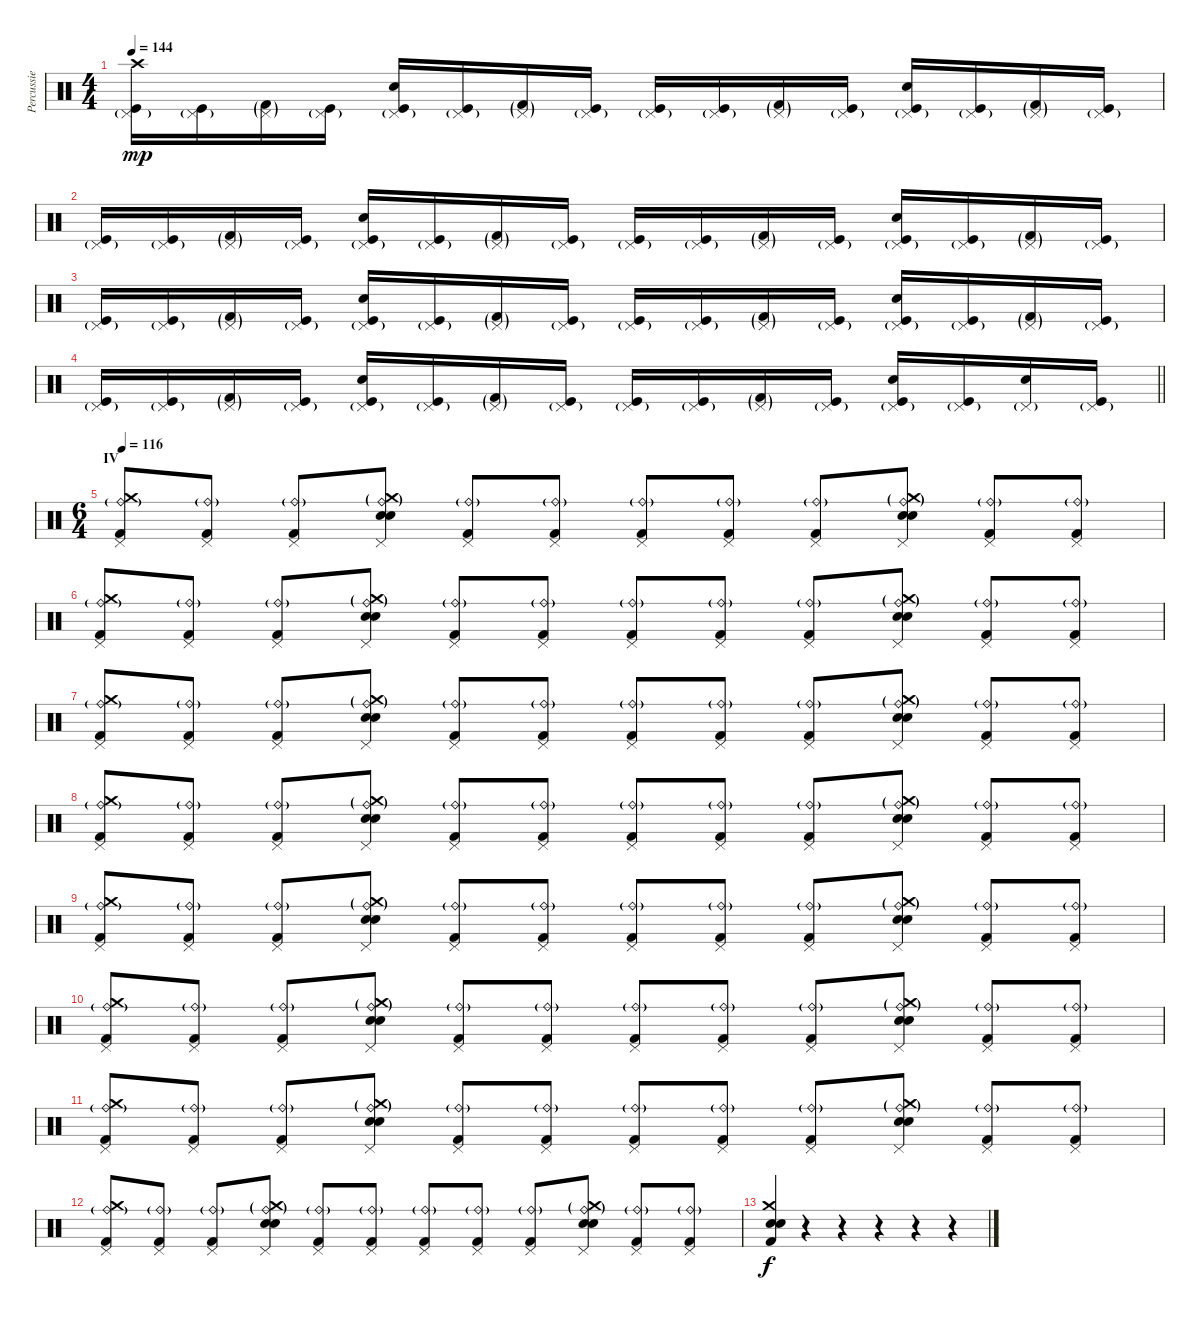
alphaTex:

\track ("Percussie" "Percussie") {instrument percussion}
\staff {score}
\articulation defaults
\ts (4 4)
\tempo 144
\clef neutral
\ks c
("Crash high (hit)" "Kick (hit)" "Pedal Hi-Hat (hit)"{g}).16{dy mp} ("Kick (hit)" "Pedal Hi-Hat (hit)"{g}).16 ("Kick (hit) 2"{g} "Pedal Hi-Hat (hit)"{g}).16 ("Kick (hit)" "Pedal Hi-Hat (hit)"{g}).16 ("Snare (hit) 2" "Kick (hit)" "Pedal Hi-Hat (hit)"{g}).16 ("Kick (hit)" "Pedal Hi-Hat (hit)"{g}).16 ("Kick (hit) 2"{g} "Pedal Hi-Hat (hit)"{g}).16 ("Kick (hit)" "Pedal Hi-Hat (hit)"{g}).16 ("Kick (hit)" "Pedal Hi-Hat (hit)"{g}).16 ("Kick (hit)" "Pedal Hi-Hat (hit)"{g}).16 ("Kick (hit) 2"{g} "Pedal Hi-Hat (hit)"{g}).16 ("Kick (hit)" "Pedal Hi-Hat (hit)"{g}).16 ("Snare (hit) 2" "Kick (hit)" "Pedal Hi-Hat (hit)"{g}).16 ("Kick (hit)" "Pedal Hi-Hat (hit)"{g}).16 ("Kick (hit) 2"{g} "Pedal Hi-Hat (hit)"{g}).16 ("Kick (hit)" "Pedal Hi-Hat (hit)"{g}).16 |
("Kick (hit)" "Pedal Hi-Hat (hit)"{g}).16 ("Kick (hit)" "Pedal Hi-Hat (hit)"{g}).16 ("Kick (hit) 2"{g} "Pedal Hi-Hat (hit)"{g}).16 ("Kick (hit)" "Pedal Hi-Hat (hit)"{g}).16 ("Snare (hit) 2" "Kick (hit)" "Pedal Hi-Hat (hit)"{g}).16 ("Kick (hit)" "Pedal Hi-Hat (hit)"{g}).16 ("Kick (hit) 2"{g} "Pedal Hi-Hat (hit)"{g}).16 ("Kick (hit)" "Pedal Hi-Hat (hit)"{g}).16 ("Kick (hit)" "Pedal Hi-Hat (hit)"{g}).16 ("Kick (hit)" "Pedal Hi-Hat (hit)"{g}).16 ("Kick (hit) 2"{g} "Pedal Hi-Hat (hit)"{g}).16 ("Kick (hit)" "Pedal Hi-Hat (hit)"{g}).16 ("Snare (hit) 2" "Kick (hit)" "Pedal Hi-Hat (hit)"{g}).16 ("Kick (hit)" "Pedal Hi-Hat (hit)"{g}).16 ("Kick (hit) 2"{g} "Pedal Hi-Hat (hit)"{g}).16 ("Kick (hit)" "Pedal Hi-Hat (hit)"{g}).16 |
("Kick (hit)" "Pedal Hi-Hat (hit)"{g}).16 ("Kick (hit)" "Pedal Hi-Hat (hit)"{g}).16 ("Kick (hit) 2"{g} "Pedal Hi-Hat (hit)"{g}).16 ("Kick (hit)" "Pedal Hi-Hat (hit)"{g}).16 ("Snare (hit) 2" "Kick (hit)" "Pedal Hi-Hat (hit)"{g}).16 ("Kick (hit)" "Pedal Hi-Hat (hit)"{g}).16 ("Kick (hit) 2"{g} "Pedal Hi-Hat (hit)"{g}).16 ("Kick (hit)" "Pedal Hi-Hat (hit)"{g}).16 ("Kick (hit)" "Pedal Hi-Hat (hit)"{g}).16 ("Kick (hit)" "Pedal Hi-Hat (hit)"{g}).16 ("Kick (hit) 2"{g} "Pedal Hi-Hat (hit)"{g}).16 ("Kick (hit)" "Pedal Hi-Hat (hit)"{g}).16 ("Snare (hit) 2" "Kick (hit)" "Pedal Hi-Hat (hit)"{g}).16 ("Kick (hit)" "Pedal Hi-Hat (hit)"{g}).16 ("Kick (hit) 2"{g} "Pedal Hi-Hat (hit)"{g}).16 ("Kick (hit)" "Pedal Hi-Hat (hit)"{g}).16 |
\barLineRight lightlight
("Kick (hit)" "Pedal Hi-Hat (hit)"{g}).16 ("Kick (hit)" "Pedal Hi-Hat (hit)"{g}).16 ("Kick (hit) 2"{g} "Pedal Hi-Hat (hit)"{g}).16 ("Kick (hit)" "Pedal Hi-Hat (hit)"{g}).16 ("Snare (hit) 2" "Kick (hit)" "Pedal Hi-Hat (hit)"{g}).16 ("Kick (hit)" "Pedal Hi-Hat (hit)"{g}).16 ("Kick (hit) 2"{g} "Pedal Hi-Hat (hit)"{g}).16 ("Kick (hit)" "Pedal Hi-Hat (hit)"{g}).16 ("Kick (hit)" "Pedal Hi-Hat (hit)"{g}).16 ("Kick (hit)" "Pedal Hi-Hat (hit)"{g}).16 ("Kick (hit) 2"{g} "Pedal Hi-Hat (hit)"{g}).16 ("Kick (hit)" "Pedal Hi-Hat (hit)"{g}).16 ("Snare (hit) 2" "Kick (hit)" "Pedal Hi-Hat (hit)"{g}).16 ("Kick (hit)" "Pedal Hi-Hat (hit)"{g}).16 ("Snare (hit) 2" "Pedal Hi-Hat (hit)"{g}).16 ("Kick (hit)" "Pedal Hi-Hat (hit)"{g}).16 |
\ts (6 4)
\section ("" "IV")
\tempo 116
("Crash medium (hit)" "Kick (hit) 2" "Ride (bell)"{g} "Pedal Hi-Hat (hit)").8 ("Kick (hit) 2" "Ride (bell)"{g} "Pedal Hi-Hat (hit)").8 ("Kick (hit) 2" "Ride (bell)"{g} "Pedal Hi-Hat (hit)").8 ("Crash medium (hit)"{g} "Electric Snare (hit)" "Snare (hit) 2" "Ride (bell)"{g} "Pedal Hi-Hat (hit)").8 ("Kick (hit) 2" "Ride (bell)"{g} "Pedal Hi-Hat (hit)").8 ("Kick (hit) 2" "Ride (bell)"{g} "Pedal Hi-Hat (hit)").8 ("Kick (hit) 2" "Ride (bell)"{g} "Pedal Hi-Hat (hit)").8 ("Kick (hit) 2" "Ride (bell)"{g} "Pedal Hi-Hat (hit)").8 ("Kick (hit) 2" "Ride (bell)"{g} "Pedal Hi-Hat (hit)").8 ("Crash medium (hit)"{g} "Electric Snare (hit)" "Snare (hit) 2" "Ride (bell)"{g} "Pedal Hi-Hat (hit)").8 ("Kick (hit) 2" "Ride (bell)"{g} "Pedal Hi-Hat (hit)").8 ("Kick (hit) 2" "Ride (bell)"{g} "Pedal Hi-Hat (hit)").8 |
("Crash medium (hit)" "Kick (hit) 2" "Ride (bell)"{g} "Pedal Hi-Hat (hit)").8 ("Kick (hit) 2" "Ride (bell)"{g} "Pedal Hi-Hat (hit)").8 ("Kick (hit) 2" "Ride (bell)"{g} "Pedal Hi-Hat (hit)").8 ("Crash medium (hit)"{g} "Electric Snare (hit)" "Snare (hit) 2" "Ride (bell)"{g} "Pedal Hi-Hat (hit)").8 ("Kick (hit) 2" "Ride (bell)"{g} "Pedal Hi-Hat (hit)").8 ("Kick (hit) 2" "Ride (bell)"{g} "Pedal Hi-Hat (hit)").8 ("Kick (hit) 2" "Ride (bell)"{g} "Pedal Hi-Hat (hit)").8 ("Kick (hit) 2" "Ride (bell)"{g} "Pedal Hi-Hat (hit)").8 ("Kick (hit) 2" "Ride (bell)"{g} "Pedal Hi-Hat (hit)").8 ("Crash medium (hit)"{g} "Electric Snare (hit)" "Snare (hit) 2" "Ride (bell)"{g} "Pedal Hi-Hat (hit)").8 ("Kick (hit) 2" "Ride (bell)"{g} "Pedal Hi-Hat (hit)").8 ("Kick (hit) 2" "Ride (bell)"{g} "Pedal Hi-Hat (hit)").8 |
("Crash medium (hit)" "Kick (hit) 2" "Ride (bell)"{g} "Pedal Hi-Hat (hit)").8 ("Kick (hit) 2" "Ride (bell)"{g} "Pedal Hi-Hat (hit)").8 ("Kick (hit) 2" "Ride (bell)"{g} "Pedal Hi-Hat (hit)").8 ("Crash medium (hit)"{g} "Electric Snare (hit)" "Snare (hit) 2" "Ride (bell)"{g} "Pedal Hi-Hat (hit)").8 ("Kick (hit) 2" "Ride (bell)"{g} "Pedal Hi-Hat (hit)").8 ("Kick (hit) 2" "Ride (bell)"{g} "Pedal Hi-Hat (hit)").8 ("Kick (hit) 2" "Ride (bell)"{g} "Pedal Hi-Hat (hit)").8 ("Kick (hit) 2" "Ride (bell)"{g} "Pedal Hi-Hat (hit)").8 ("Kick (hit) 2" "Ride (bell)"{g} "Pedal Hi-Hat (hit)").8 ("Crash medium (hit)"{g} "Electric Snare (hit)" "Snare (hit) 2" "Ride (bell)"{g} "Pedal Hi-Hat (hit)").8 ("Kick (hit) 2" "Ride (bell)"{g} "Pedal Hi-Hat (hit)").8 ("Kick (hit) 2" "Ride (bell)"{g} "Pedal Hi-Hat (hit)").8 |
("Crash medium (hit)" "Kick (hit) 2" "Ride (bell)"{g} "Pedal Hi-Hat (hit)").8 ("Kick (hit) 2" "Ride (bell)"{g} "Pedal Hi-Hat (hit)").8 ("Kick (hit) 2" "Ride (bell)"{g} "Pedal Hi-Hat (hit)").8 ("Crash medium (hit)"{g} "Electric Snare (hit)" "Snare (hit) 2" "Ride (bell)"{g} "Pedal Hi-Hat (hit)").8 ("Kick (hit) 2" "Ride (bell)"{g} "Pedal Hi-Hat (hit)").8 ("Kick (hit) 2" "Ride (bell)"{g} "Pedal Hi-Hat (hit)").8 ("Kick (hit) 2" "Ride (bell)"{g} "Pedal Hi-Hat (hit)").8 ("Kick (hit) 2" "Ride (bell)"{g} "Pedal Hi-Hat (hit)").8 ("Kick (hit) 2" "Ride (bell)"{g} "Pedal Hi-Hat (hit)").8 ("Crash medium (hit)"{g} "Electric Snare (hit)" "Snare (hit) 2" "Ride (bell)"{g} "Pedal Hi-Hat (hit)").8 ("Kick (hit) 2" "Ride (bell)"{g} "Pedal Hi-Hat (hit)").8 ("Kick (hit) 2" "Ride (bell)"{g} "Pedal Hi-Hat (hit)").8 |
("Crash medium (hit)" "Kick (hit) 2" "Ride (bell)"{g} "Pedal Hi-Hat (hit)").8 ("Kick (hit) 2" "Ride (bell)"{g} "Pedal Hi-Hat (hit)").8 ("Kick (hit) 2" "Ride (bell)"{g} "Pedal Hi-Hat (hit)").8 ("Crash medium (hit)"{g} "Electric Snare (hit)" "Snare (hit) 2" "Ride (bell)"{g} "Pedal Hi-Hat (hit)").8 ("Kick (hit) 2" "Ride (bell)"{g} "Pedal Hi-Hat (hit)").8 ("Kick (hit) 2" "Ride (bell)"{g} "Pedal Hi-Hat (hit)").8 ("Kick (hit) 2" "Ride (bell)"{g} "Pedal Hi-Hat (hit)").8 ("Kick (hit) 2" "Ride (bell)"{g} "Pedal Hi-Hat (hit)").8 ("Kick (hit) 2" "Ride (bell)"{g} "Pedal Hi-Hat (hit)").8 ("Crash medium (hit)"{g} "Electric Snare (hit)" "Snare (hit) 2" "Ride (bell)"{g} "Pedal Hi-Hat (hit)").8 ("Kick (hit) 2" "Ride (bell)"{g} "Pedal Hi-Hat (hit)").8 ("Kick (hit) 2" "Ride (bell)"{g} "Pedal Hi-Hat (hit)").8 |
("Crash medium (hit)" "Kick (hit) 2" "Ride (bell)"{g} "Pedal Hi-Hat (hit)").8 ("Kick (hit) 2" "Ride (bell)"{g} "Pedal Hi-Hat (hit)").8 ("Kick (hit) 2" "Ride (bell)"{g} "Pedal Hi-Hat (hit)").8 ("Crash medium (hit)"{g} "Electric Snare (hit)" "Snare (hit) 2" "Ride (bell)"{g} "Pedal Hi-Hat (hit)").8 ("Kick (hit) 2" "Ride (bell)"{g} "Pedal Hi-Hat (hit)").8 ("Kick (hit) 2" "Ride (bell)"{g} "Pedal Hi-Hat (hit)").8 ("Kick (hit) 2" "Ride (bell)"{g} "Pedal Hi-Hat (hit)").8 ("Kick (hit) 2" "Ride (bell)"{g} "Pedal Hi-Hat (hit)").8 ("Kick (hit) 2" "Ride (bell)"{g} "Pedal Hi-Hat (hit)").8 ("Crash medium (hit)"{g} "Electric Snare (hit)" "Snare (hit) 2" "Ride (bell)"{g} "Pedal Hi-Hat (hit)").8 ("Kick (hit) 2" "Ride (bell)"{g} "Pedal Hi-Hat (hit)").8 ("Kick (hit) 2" "Ride (bell)"{g} "Pedal Hi-Hat (hit)").8 |
("Crash medium (hit)" "Kick (hit) 2" "Ride (bell)"{g} "Pedal Hi-Hat (hit)").8 ("Kick (hit) 2" "Ride (bell)"{g} "Pedal Hi-Hat (hit)").8 ("Kick (hit) 2" "Ride (bell)"{g} "Pedal Hi-Hat (hit)").8 ("Crash medium (hit)"{g} "Electric Snare (hit)" "Snare (hit) 2" "Ride (bell)"{g} "Pedal Hi-Hat (hit)").8 ("Kick (hit) 2" "Ride (bell)"{g} "Pedal Hi-Hat (hit)").8 ("Kick (hit) 2" "Ride (bell)"{g} "Pedal Hi-Hat (hit)").8 ("Kick (hit) 2" "Ride (bell)"{g} "Pedal Hi-Hat (hit)").8 ("Kick (hit) 2" "Ride (bell)"{g} "Pedal Hi-Hat (hit)").8 ("Kick (hit) 2" "Ride (bell)"{g} "Pedal Hi-Hat (hit)").8 ("Crash medium (hit)"{g} "Electric Snare (hit)" "Snare (hit) 2" "Ride (bell)"{g} "Pedal Hi-Hat (hit)").8 ("Kick (hit) 2" "Ride (bell)"{g} "Pedal Hi-Hat (hit)").8 ("Kick (hit) 2" "Ride (bell)"{g} "Pedal Hi-Hat (hit)").8 |
("Crash medium (hit)" "Kick (hit) 2" "Ride (bell)"{g} "Pedal Hi-Hat (hit)").8 ("Kick (hit) 2" "Ride (bell)"{g} "Pedal Hi-Hat (hit)").8 ("Kick (hit) 2" "Ride (bell)"{g} "Pedal Hi-Hat (hit)").8 ("Crash medium (hit)"{g} "Electric Snare (hit)" "Snare (hit) 2" "Ride (bell)"{g} "Pedal Hi-Hat (hit)").8 ("Kick (hit) 2" "Ride (bell)"{g} "Pedal Hi-Hat (hit)").8 ("Kick (hit) 2" "Ride (bell)"{g} "Pedal Hi-Hat (hit)").8 ("Kick (hit) 2" "Ride (bell)"{g} "Pedal Hi-Hat (hit)").8 ("Kick (hit) 2" "Ride (bell)"{g} "Pedal Hi-Hat (hit)").8 ("Kick (hit) 2" "Ride (bell)"{g} "Pedal Hi-Hat (hit)").8 ("Crash medium (hit)"{g} "Electric Snare (hit)" "Snare (hit) 2" "Ride (bell)"{g} "Pedal Hi-Hat (hit)").8 ("Kick (hit) 2" "Ride (bell)"{g} "Pedal Hi-Hat (hit)").8 ("Kick (hit) 2" "Ride (bell)"{g} "Pedal Hi-Hat (hit)").8 |
("Crash medium (hit)" "Electric Snare (hit)" "Snare (hit) 2" "Kick (hit) 2").4{dy f} r.4 r.4 r.4 r.4 r.4
